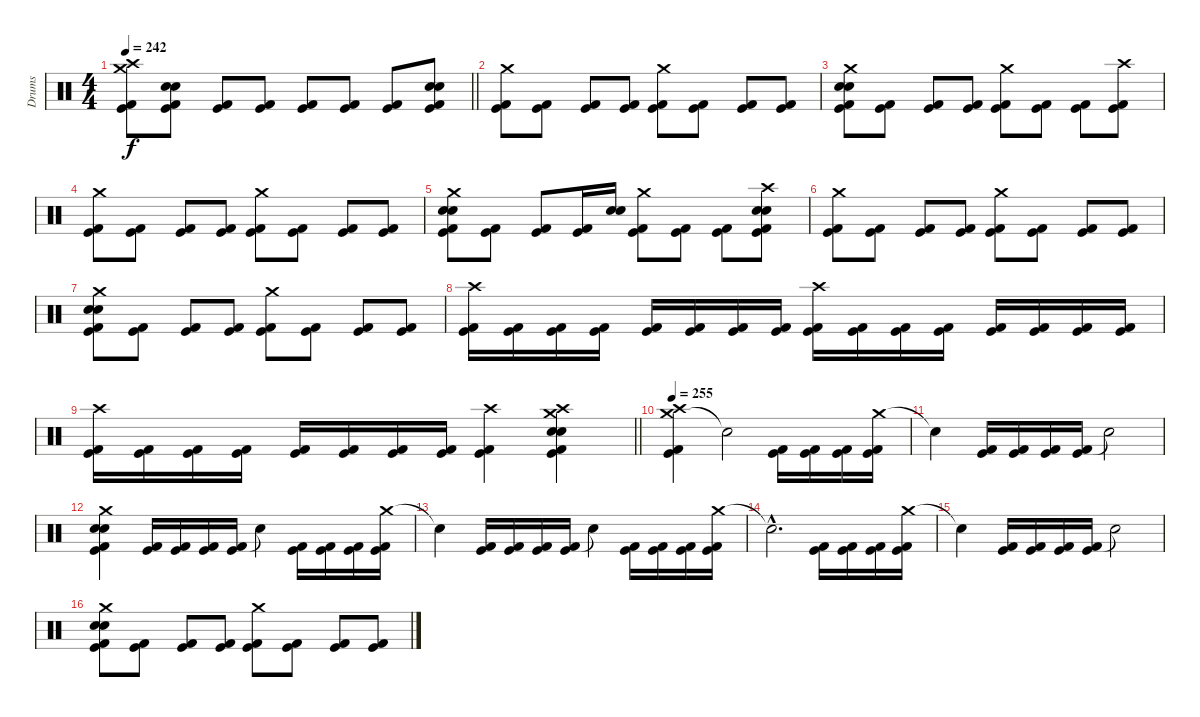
\track ("Drums" "Drums") {instrument percussion}
\staff {score}
\articulation defaults
\ts (4 4)
\tempo 242
\clef neutral
\barLineRight lightlight
\ks c
("Crash medium (hit)" "Crash high (hit)" "Kick (hit) 2" "Kick (hit)").8{dy f} ("Electric Snare (hit)" "Electric Snare (hit)" "Kick (hit) 2" "Kick (hit)").8 ("Kick (hit) 2" "Kick (hit)").8 ("Kick (hit) 2" "Kick (hit)").8 ("Kick (hit) 2" "Kick (hit)").8 ("Kick (hit) 2" "Kick (hit)").8 ("Kick (hit) 2" "Kick (hit)").8 ("Electric Snare (hit)" "Electric Snare (hit)" "Kick (hit) 2" "Kick (hit)").8 |
("Crash medium (hit)" "Kick (hit) 2" "Kick (hit)").8 ("Kick (hit) 2" "Kick (hit)").8 ("Kick (hit) 2" "Kick (hit)").8 ("Kick (hit) 2" "Kick (hit)").8 ("Crash medium (hit)" "Kick (hit) 2" "Kick (hit)").8 ("Kick (hit) 2" "Kick (hit)").8 ("Kick (hit) 2" "Kick (hit)").8 ("Kick (hit) 2" "Kick (hit)").8 |
("Crash medium (hit)" "Electric Snare (hit)" "Electric Snare (hit)" "Kick (hit) 2" "Kick (hit)").8 ("Kick (hit) 2" "Kick (hit)").8 ("Kick (hit) 2" "Kick (hit)").8 ("Kick (hit) 2" "Kick (hit)").8 ("Crash medium (hit)" "Kick (hit) 2" "Kick (hit)").8 ("Kick (hit) 2" "Kick (hit)").8 ("Kick (hit) 2" "Kick (hit)").8 ("Crash high (hit)" "Kick (hit) 2" "Kick (hit)").8 |
("Crash medium (hit)" "Kick (hit) 2" "Kick (hit)").8 ("Kick (hit) 2" "Kick (hit)").8 ("Kick (hit) 2" "Kick (hit)").8 ("Kick (hit) 2" "Kick (hit)").8 ("Crash medium (hit)" "Kick (hit) 2" "Kick (hit)").8 ("Kick (hit) 2" "Kick (hit)").8 ("Kick (hit) 2" "Kick (hit)").8 ("Kick (hit) 2" "Kick (hit)").8 |
("Crash medium (hit)" "Electric Snare (hit)" "Electric Snare (hit)" "Kick (hit) 2" "Kick (hit)").8 ("Kick (hit) 2" "Kick (hit)").8 ("Kick (hit) 2" "Kick (hit)").8 ("Kick (hit) 2" "Kick (hit)").16 ("Electric Snare (hit)" "Electric Snare (hit)").16 ("Crash medium (hit)" "Kick (hit) 2" "Kick (hit)").8 ("Kick (hit) 2" "Kick (hit)").8 ("Kick (hit) 2" "Kick (hit)").8 ("Crash high (hit)" "Electric Snare (hit)" "Electric Snare (hit)" "Kick (hit) 2" "Kick (hit)").8 |
("Crash medium (hit)" "Kick (hit) 2" "Kick (hit)").8 ("Kick (hit) 2" "Kick (hit)").8 ("Kick (hit) 2" "Kick (hit)").8 ("Kick (hit) 2" "Kick (hit)").8 ("Crash medium (hit)" "Kick (hit) 2" "Kick (hit)").8 ("Kick (hit) 2" "Kick (hit)").8 ("Kick (hit) 2" "Kick (hit)").8 ("Kick (hit) 2" "Kick (hit)").8 |
("Crash medium (hit)" "Electric Snare (hit)" "Electric Snare (hit)" "Kick (hit) 2" "Kick (hit)").8 ("Kick (hit) 2" "Kick (hit)").8 ("Kick (hit) 2" "Kick (hit)").8 ("Kick (hit) 2" "Kick (hit)").8 ("Crash medium (hit)" "Kick (hit) 2" "Kick (hit)").8 ("Kick (hit) 2" "Kick (hit)").8 ("Kick (hit) 2" "Kick (hit)").8 ("Kick (hit) 2" "Kick (hit)").8 |
("Crash high (hit)" "Kick (hit) 2" "Kick (hit)").16 ("Kick (hit) 2" "Kick (hit)").16 ("Kick (hit) 2" "Kick (hit)").16 ("Kick (hit) 2" "Kick (hit)").16 ("Kick (hit) 2" "Kick (hit)").16 ("Kick (hit) 2" "Kick (hit)").16 ("Kick (hit) 2" "Kick (hit)").16 ("Kick (hit) 2" "Kick (hit)").16 ("Crash high (hit)" "Kick (hit) 2" "Kick (hit)").16 ("Kick (hit) 2" "Kick (hit)").16 ("Kick (hit) 2" "Kick (hit)").16 ("Kick (hit) 2" "Kick (hit)").16 ("Kick (hit) 2" "Kick (hit)").16 ("Kick (hit) 2" "Kick (hit)").16 ("Kick (hit) 2" "Kick (hit)").16 ("Kick (hit) 2" "Kick (hit)").16 |
\barLineRight lightlight
("Crash high (hit)" "Kick (hit) 2" "Kick (hit)").16 ("Kick (hit) 2" "Kick (hit)").16 ("Kick (hit) 2" "Kick (hit)").16 ("Kick (hit) 2" "Kick (hit)").16 ("Kick (hit) 2" "Kick (hit)").16 ("Kick (hit) 2" "Kick (hit)").16 ("Kick (hit) 2" "Kick (hit)").16 ("Kick (hit) 2" "Kick (hit)").16 ("Crash high (hit)" "Kick (hit) 2" "Kick (hit)").4 ("Crash medium (hit)" "Crash high (hit)" "Electric Snare (hit)" "Electric Snare (hit)" "Kick (hit) 2" "Kick (hit)").4 |
\tempo 255
("Crash medium (hit)" "Crash high (hit)" "Kick (hit) 2" "Kick (hit)").4 "Snare (hit)"{t}.2 ("Kick (hit) 2" "Kick (hit)").16 ("Kick (hit) 2" "Kick (hit)").16 ("Kick (hit) 2" "Kick (hit)").16 ("Crash medium (hit)" "Kick (hit) 2" "Kick (hit)").16 |
"Snare (hit)"{t}.4 ("Kick (hit) 2" "Kick (hit)").16 ("Kick (hit) 2" "Kick (hit)").16 ("Kick (hit) 2" "Kick (hit)").16 ("Kick (hit) 2" "Kick (hit)").16 "Snare (hit)"{t}.2 |
("Crash medium (hit)" "Electric Snare (hit)" "Electric Snare (hit)" "Kick (hit) 2" "Kick (hit)").4 ("Kick (hit) 2" "Kick (hit)").16 ("Kick (hit) 2" "Kick (hit)").16 ("Kick (hit) 2" "Kick (hit)").16 ("Kick (hit) 2" "Kick (hit)").16 "Snare (hit)"{t}.4 ("Kick (hit) 2" "Kick (hit)").16 ("Kick (hit) 2" "Kick (hit)").16 ("Kick (hit) 2" "Kick (hit)").16 ("Crash medium (hit)" "Kick (hit) 2" "Kick (hit)").16 |
"Snare (hit)"{t}.4 ("Kick (hit) 2" "Kick (hit)").16 ("Kick (hit) 2" "Kick (hit)").16 ("Kick (hit) 2" "Kick (hit)").16 ("Kick (hit) 2" "Kick (hit)").16 "Snare (hit)"{t}.4 ("Kick (hit) 2" "Kick (hit)").16 ("Kick (hit) 2" "Kick (hit)").16 ("Kick (hit) 2" "Kick (hit)").16 ("Crash medium (hit)" "Kick (hit) 2" "Kick (hit)").16 |
"Snare (hit)"{hac t}.2{d} ("Kick (hit) 2" "Kick (hit)").16 ("Kick (hit) 2" "Kick (hit)").16 ("Kick (hit) 2" "Kick (hit)").16 ("Crash medium (hit)" "Kick (hit) 2" "Kick (hit)").16 |
"Snare (hit)"{t}.4 ("Kick (hit) 2" "Kick (hit)").16 ("Kick (hit) 2" "Kick (hit)").16 ("Kick (hit) 2" "Kick (hit)").16 ("Kick (hit) 2" "Kick (hit)").16 "Snare (hit)"{t}.2 |
("Crash medium (hit)" "Electric Snare (hit)" "Electric Snare (hit)" "Kick (hit) 2" "Kick (hit)").8 ("Kick (hit) 2" "Kick (hit)").8 ("Kick (hit) 2" "Kick (hit)").8 ("Kick (hit) 2" "Kick (hit)").8 ("Crash medium (hit)" "Kick (hit) 2" "Kick (hit)").8 ("Kick (hit) 2" "Kick (hit)").8 ("Kick (hit) 2" "Kick (hit)").8 ("Kick (hit) 2" "Kick (hit)").8
